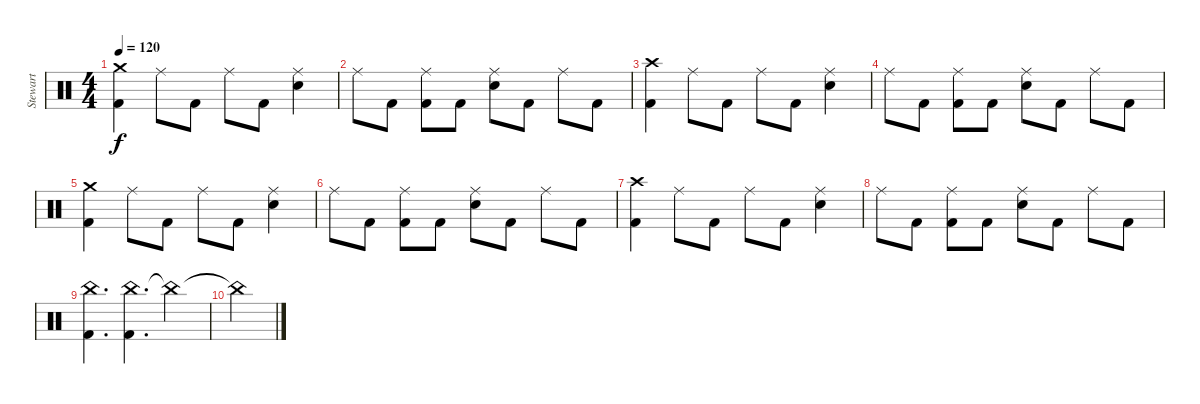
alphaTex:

\track ("Stewart" "Stewart") {instrument percussion}
\staff {score}
\articulation defaults
\ts (4 4)
\tempo 120
\clef neutral
\ks c
("Crash medium (hit)" "Kick (hit) 2").4{dy f} "Ride (middle)".8 "Kick (hit) 2".8 "Ride (middle)".8 "Kick (hit) 2".8 ("Ride (middle)" "Electric Snare (hit)").4 |
"Ride (middle)".8 "Kick (hit) 2".8 ("Ride (middle)" "Kick (hit) 2").8 "Kick (hit) 2".8 ("Ride (middle)" "Electric Snare (hit)").8 "Kick (hit) 2".8 "Ride (middle)".8 "Kick (hit) 2".8 |
("Crash high (hit)" "Kick (hit) 2").4 "Ride (middle)".8 "Kick (hit) 2".8 "Ride (middle)".8 "Kick (hit) 2".8 ("Ride (middle)" "Electric Snare (hit)").4 |
"Ride (middle)".8 "Kick (hit) 2".8 ("Ride (middle)" "Kick (hit) 2").8 "Kick (hit) 2".8 ("Ride (middle)" "Electric Snare (hit)").8 "Kick (hit) 2".8 "Ride (middle)".8 "Kick (hit) 2".8 |
("Crash medium (hit)" "Kick (hit) 2").4 "Ride (middle)".8 "Kick (hit) 2".8 "Ride (middle)".8 "Kick (hit) 2".8 ("Ride (middle)" "Electric Snare (hit)").4 |
"Ride (middle)".8 "Kick (hit) 2".8 ("Ride (middle)" "Kick (hit) 2").8 "Kick (hit) 2".8 ("Ride (middle)" "Electric Snare (hit)").8 "Kick (hit) 2".8 "Ride (middle)".8 "Kick (hit) 2".8 |
("Crash high (hit)" "Kick (hit) 2").4 "Ride (middle)".8 "Kick (hit) 2".8 "Ride (middle)".8 "Kick (hit) 2".8 ("Ride (middle)" "Electric Snare (hit)").4 |
"Ride (middle)".8 "Kick (hit) 2".8 ("Ride (middle)" "Kick (hit) 2").8 "Kick (hit) 2".8 ("Ride (middle)" "Electric Snare (hit)").8 "Kick (hit) 2".8 "Ride (middle)".8 "Kick (hit) 2".8 |
("China (hit)" "Kick (hit) 2").4{d} ("China (hit)" "Kick (hit) 2").4{d} "China (hit)"{t}.4 |
"China (hit)"{t}.4
